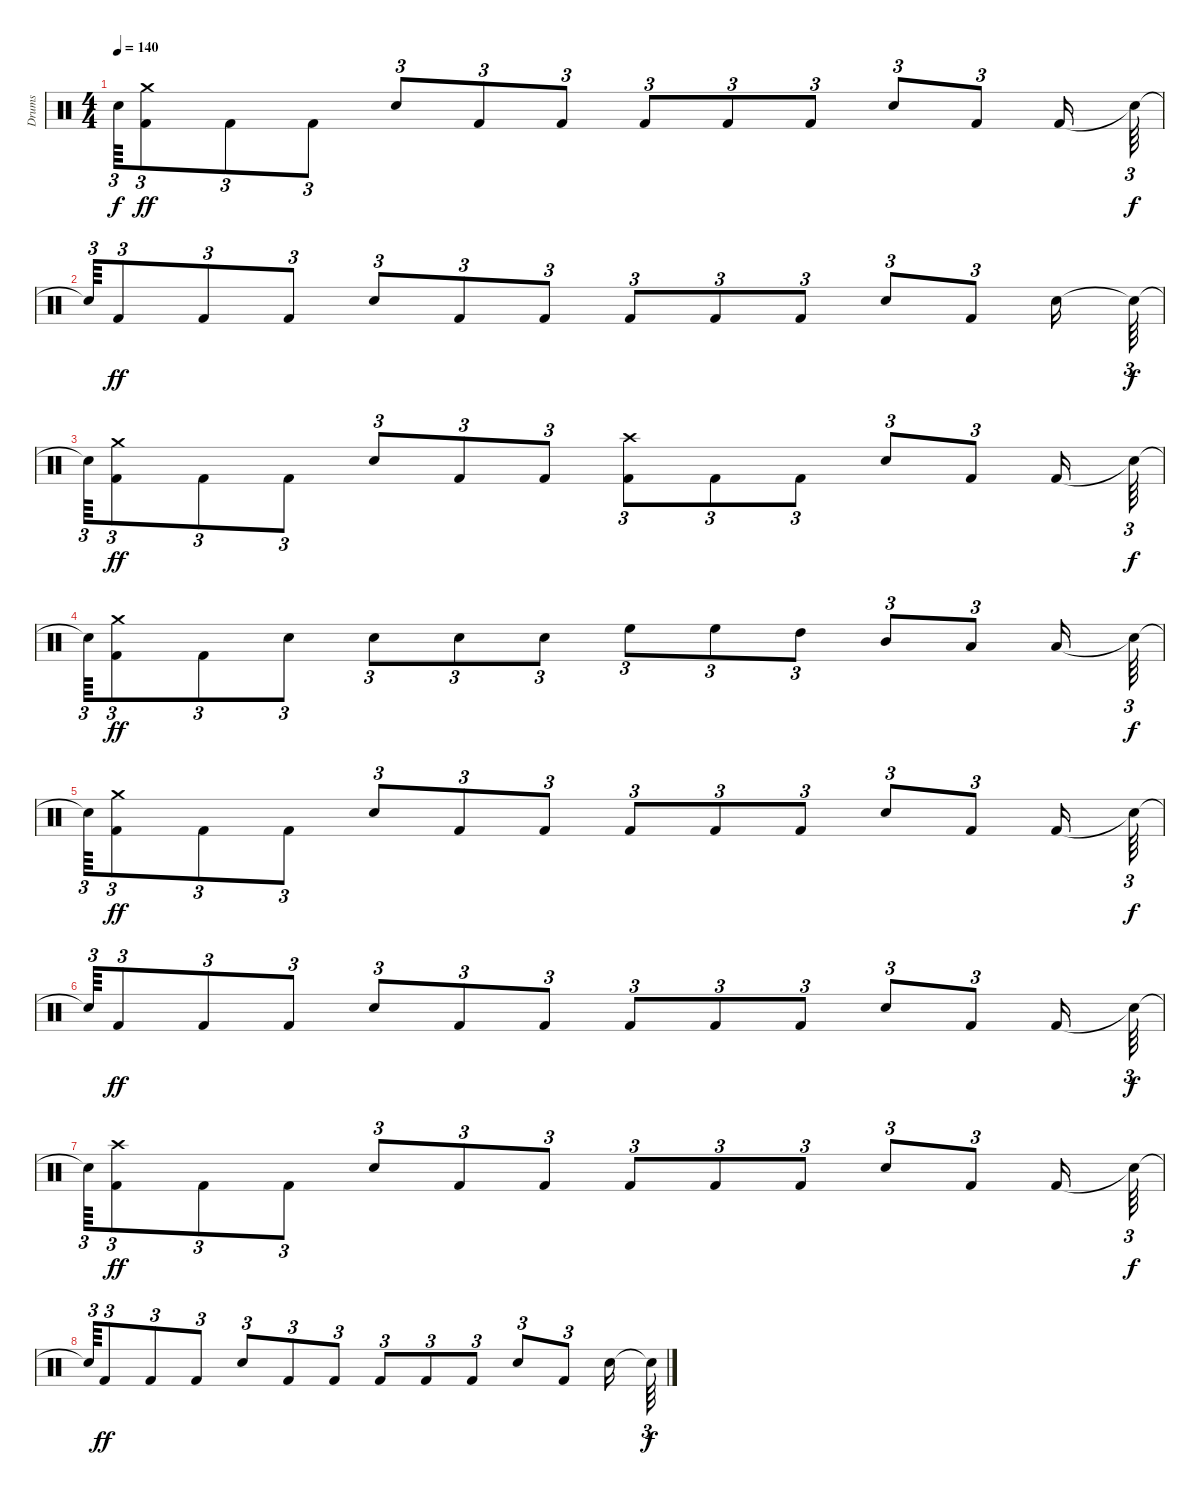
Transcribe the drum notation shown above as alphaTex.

\track ("Drums" "Drums") {instrument percussion}
\staff {score}
\articulation defaults
\ts (4 4)
\tempo 140
\clef neutral
\ks c "Snare (hit)"{t}.64{tu (3 2) dy f}
("Kick (hit) 2" "Crash medium (hit)").8{tu (3 2) dy ff} "Kick (hit) 2".8{tu (3 2)} "Kick (hit) 2".8{tu (3 2)} "Snare (hit) 2".8{tu (3 2)} "Kick (hit) 2".8{tu (3 2)} "Kick (hit) 2".8{tu (3 2)} "Kick (hit) 2".8{tu (3 2)} "Kick (hit) 2".8{tu (3 2)} "Kick (hit) 2".8{tu (3 2)} "Snare (hit) 2".8{tu (3 2)} "Kick (hit) 2".8{tu (3 2)} "Kick (hit) 2".16 "Snare (hit)"{t}.64{tu (3 2) dy f} |
"Snare (hit)"{t}.64{tu (3 2)} "Kick (hit) 2".8{tu (3 2) dy ff} "Kick (hit) 2".8{tu (3 2)} "Kick (hit) 2".8{tu (3 2)} "Snare (hit) 2".8{tu (3 2)} "Kick (hit) 2".8{tu (3 2)} "Kick (hit) 2".8{tu (3 2)} "Kick (hit) 2".8{tu (3 2)} "Kick (hit) 2".8{tu (3 2)} "Kick (hit) 2".8{tu (3 2)} "Snare (hit) 2".8{tu (3 2)} "Kick (hit) 2".8{tu (3 2)} "Snare (hit) 2".16 "Snare (hit)"{t}.64{tu (3 2) dy f} |
"Snare (hit)"{t}.64{tu (3 2)} ("Kick (hit) 2" "Crash medium (hit)").8{tu (3 2) dy ff} "Kick (hit) 2".8{tu (3 2)} "Kick (hit) 2".8{tu (3 2)} "Snare (hit) 2".8{tu (3 2)} "Kick (hit) 2".8{tu (3 2)} "Kick (hit) 2".8{tu (3 2)} ("Kick (hit) 2" "Crash high (hit)").8{tu (3 2)} "Kick (hit) 2".8{tu (3 2)} "Kick (hit) 2".8{tu (3 2)} "Snare (hit) 2".8{tu (3 2)} "Kick (hit) 2".8{tu (3 2)} "Kick (hit) 2".16 "Snare (hit)"{t}.64{tu (3 2) dy f} |
"Snare (hit)"{t}.64{tu (3 2)} ("Kick (hit) 2" "Crash medium (hit)").8{tu (3 2) dy ff} "Kick (hit) 2".8{tu (3 2)} "Snare (hit) 2".8{tu (3 2)} "Snare (hit) 2".8{tu (3 2)} "Snare (hit) 2".8{tu (3 2)} "Snare (hit) 2".8{tu (3 2)} "High Floor Tom (hit)".8{tu (3 2)} "High Floor Tom (hit)".8{tu (3 2)} "High Tom (hit)".8{tu (3 2)} "Mid Tom (hit)".8{tu (3 2)} "Low Tom (hit)".8{tu (3 2)} "Low Floor Tom (hit)".16 "Snare (hit)"{t}.64{tu (3 2) dy f} |
"Snare (hit)"{t}.64{tu (3 2)} ("Kick (hit) 2" "Crash medium (hit)").8{tu (3 2) dy ff} "Kick (hit) 2".8{tu (3 2)} "Kick (hit) 2".8{tu (3 2)} "Snare (hit) 2".8{tu (3 2)} "Kick (hit) 2".8{tu (3 2)} "Kick (hit) 2".8{tu (3 2)} "Kick (hit) 2".8{tu (3 2)} "Kick (hit) 2".8{tu (3 2)} "Kick (hit) 2".8{tu (3 2)} "Snare (hit) 2".8{tu (3 2)} "Kick (hit) 2".8{tu (3 2)} "Kick (hit) 2".16 "Snare (hit)"{t}.64{tu (3 2) dy f} |
"Snare (hit)"{t}.64{tu (3 2)} "Kick (hit) 2".8{tu (3 2) dy ff} "Kick (hit) 2".8{tu (3 2)} "Kick (hit) 2".8{tu (3 2)} "Snare (hit) 2".8{tu (3 2)} "Kick (hit) 2".8{tu (3 2)} "Kick (hit) 2".8{tu (3 2)} "Kick (hit) 2".8{tu (3 2)} "Kick (hit) 2".8{tu (3 2)} "Kick (hit) 2".8{tu (3 2)} "Snare (hit) 2".8{tu (3 2)} "Kick (hit) 2".8{tu (3 2)} "Kick (hit) 2".16 "Snare (hit)"{t}.64{tu (3 2) dy f} |
"Snare (hit)"{t}.64{tu (3 2)} ("Kick (hit) 2" "Crash high (hit)").8{tu (3 2) dy ff} "Kick (hit) 2".8{tu (3 2)} "Kick (hit) 2".8{tu (3 2)} "Snare (hit) 2".8{tu (3 2)} "Kick (hit) 2".8{tu (3 2)} "Kick (hit) 2".8{tu (3 2)} "Kick (hit) 2".8{tu (3 2)} "Kick (hit) 2".8{tu (3 2)} "Kick (hit) 2".8{tu (3 2)} "Snare (hit) 2".8{tu (3 2)} "Kick (hit) 2".8{tu (3 2)} "Kick (hit) 2".16 "Snare (hit)"{t}.64{tu (3 2) dy f} |
"Snare (hit)"{t}.64{tu (3 2)} "Kick (hit) 2".8{tu (3 2) dy ff} "Kick (hit) 2".8{tu (3 2)} "Kick (hit) 2".8{tu (3 2)} "Snare (hit) 2".8{tu (3 2)} "Kick (hit) 2".8{tu (3 2)} "Kick (hit) 2".8{tu (3 2)} "Kick (hit) 2".8{tu (3 2)} "Kick (hit) 2".8{tu (3 2)} "Kick (hit) 2".8{tu (3 2)} "Snare (hit) 2".8{tu (3 2)} "Kick (hit) 2".8{tu (3 2)} "Snare (hit) 2".16 "Snare (hit)"{t}.64{tu (3 2) dy f}
